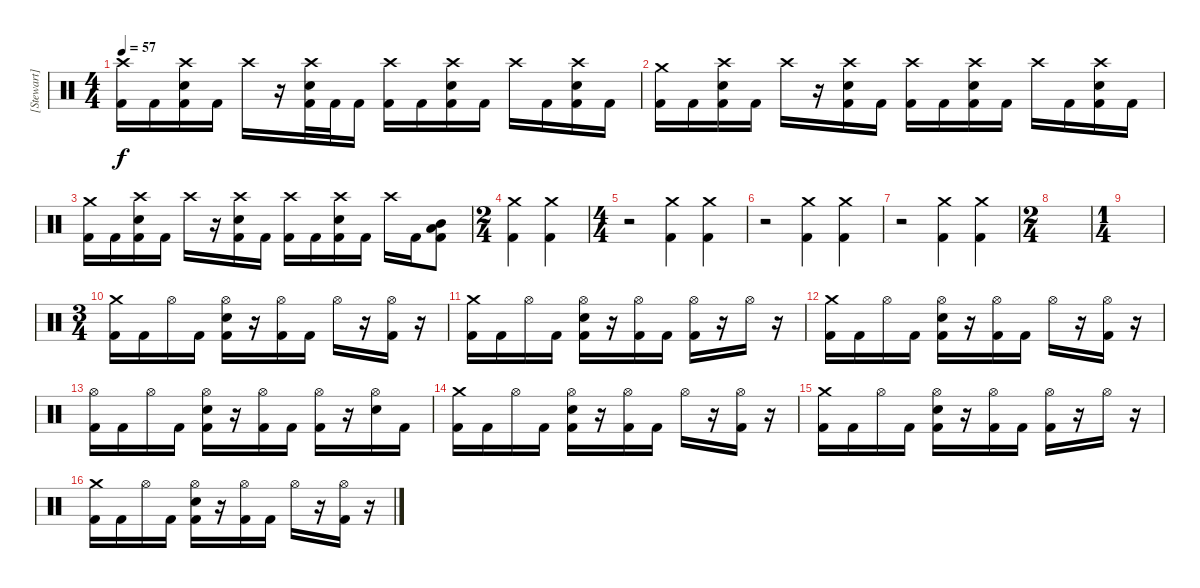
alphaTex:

\track ("[Stewart]" "[Stewart]") {instrument percussion}
\staff {score}
\articulation defaults
\ts (4 4)
\tempo 57
\clef neutral
\ks c
("Kick (hit) 2" "Crash high (hit)").16{dy f} "Kick (hit) 2".16 ("Kick (hit) 2" "Electric Snare (hit)" "Crash high (hit)").16 "Kick (hit) 2".16 "Crash high (hit)".16 r.16 ("Kick (hit) 2" "Electric Snare (hit)" "Crash high (hit)").32 "Kick (hit) 2".32 "Kick (hit) 2".16 ("Kick (hit) 2" "Crash high (hit)").16 "Kick (hit) 2".16 ("Kick (hit) 2" "Electric Snare (hit)" "Crash high (hit)").16 "Kick (hit) 2".16 "Crash high (hit)".16 "Kick (hit) 2".16 ("Kick (hit) 2" "Electric Snare (hit)" "Crash high (hit)").16 "Kick (hit) 2".16 |
("Kick (hit) 2" "Crash medium (hit)").16 "Kick (hit) 2".16 ("Kick (hit) 2" "Electric Snare (hit)" "Crash high (hit)").16 "Kick (hit) 2".16 "Crash high (hit)".16 r.16 ("Kick (hit) 2" "Electric Snare (hit)" "Crash high (hit)").16 "Kick (hit) 2".16 ("Kick (hit) 2" "Crash high (hit)").16 "Kick (hit) 2".16 ("Kick (hit) 2" "Electric Snare (hit)" "Crash high (hit)").16 "Kick (hit) 2".16 "Crash high (hit)".16 "Kick (hit) 2".16 ("Kick (hit) 2" "Electric Snare (hit)" "Crash high (hit)").16 "Kick (hit) 2".16 |
("Kick (hit) 2" "Crash medium (hit)").16 "Kick (hit) 2".16 ("Kick (hit) 2" "Electric Snare (hit)" "Crash high (hit)").16 "Kick (hit) 2".16 "Crash high (hit)".16 r.16 ("Kick (hit) 2" "Electric Snare (hit)" "Crash high (hit)").16 "Kick (hit) 2".16 ("Kick (hit) 2" "Crash high (hit)").16 "Kick (hit) 2".16 ("Kick (hit) 2" "Electric Snare (hit)" "Crash high (hit)").16 "Kick (hit) 2".16 "Crash high (hit)".16 "Kick (hit) 2".16 ("Kick (hit) 2" "Mid Tom (hit)" "Low Tom (hit)").8 |
\ts (2 4)
("Kick (hit) 2" "Crash medium (hit)").4 ("Kick (hit) 2" "Crash medium (hit)").4 |
\ts (4 4)
r.2 ("Crash medium (hit)" "Kick (hit) 2").4 ("Crash medium (hit)" "Kick (hit) 2").4 |
r.2 ("Crash medium (hit)" "Kick (hit) 2").4 ("Crash medium (hit)" "Kick (hit) 2").4 |
r.2 ("Crash medium (hit)" "Kick (hit) 2").4 ("Crash medium (hit)" "Kick (hit) 2").4 |
\ts (2 4)
|
\ts (1 4)
|
\ts (3 4)
("Kick (hit) 2" "Crash medium (hit)").16 "Kick (hit) 2".16 "Hi-Hat (open)".16 "Kick (hit) 2".16 ("Kick (hit) 2" "Electric Snare (hit)" "Hi-Hat (open)").16 r.16 ("Kick (hit) 2" "Hi-Hat (open)").16 "Kick (hit) 2".16 "Hi-Hat (open)".16 r.16 ("Kick (hit) 2" "Hi-Hat (open)").16 r.16 |
("Kick (hit) 2" "Crash medium (hit)").16 "Kick (hit) 2".16 "Hi-Hat (open)".16 "Kick (hit) 2".16 ("Kick (hit) 2" "Electric Snare (hit)" "Hi-Hat (open)").16 r.16 ("Kick (hit) 2" "Hi-Hat (open)").16 "Kick (hit) 2".16 ("Kick (hit) 2" "Hi-Hat (open)").16 r.16 "Hi-Hat (open)".16 r.16 |
("Kick (hit) 2" "Crash medium (hit)").16 "Kick (hit) 2".16 "Hi-Hat (open)".16 "Kick (hit) 2".16 ("Kick (hit) 2" "Electric Snare (hit)" "Hi-Hat (open)").16 r.16 ("Kick (hit) 2" "Hi-Hat (open)").16 "Kick (hit) 2".16 "Hi-Hat (open)".16 r.16 ("Kick (hit) 2" "Hi-Hat (open)").16 r.16 |
("Kick (hit) 2" "Hi-Hat (open)").16 "Kick (hit) 2".16 "Hi-Hat (open)".16 "Kick (hit) 2".16 ("Kick (hit) 2" "Electric Snare (hit)" "Hi-Hat (open)").16 r.16 ("Kick (hit) 2" "Hi-Hat (open)").16 "Kick (hit) 2".16 ("Kick (hit) 2" "Hi-Hat (open)").16 r.16 ("Electric Snare (hit)" "Hi-Hat (open)").16 "Kick (hit) 2".16 |
("Kick (hit) 2" "Crash medium (hit)").16 "Kick (hit) 2".16 "Hi-Hat (open)".16 "Kick (hit) 2".16 ("Kick (hit) 2" "Electric Snare (hit)" "Hi-Hat (open)").16 r.16 ("Kick (hit) 2" "Hi-Hat (open)").16 "Kick (hit) 2".16 "Hi-Hat (open)".16 r.16 ("Kick (hit) 2" "Hi-Hat (open)").16 r.16 |
("Kick (hit) 2" "Crash medium (hit)").16 "Kick (hit) 2".16 "Hi-Hat (open)".16 "Kick (hit) 2".16 ("Kick (hit) 2" "Electric Snare (hit)" "Hi-Hat (open)").16 r.16 ("Kick (hit) 2" "Hi-Hat (open)").16 "Kick (hit) 2".16 ("Kick (hit) 2" "Hi-Hat (open)").16 r.16 "Hi-Hat (open)".16 r.16 |
("Kick (hit) 2" "Crash medium (hit)").16 "Kick (hit) 2".16 "Hi-Hat (open)".16 "Kick (hit) 2".16 ("Kick (hit) 2" "Electric Snare (hit)" "Hi-Hat (open)").16 r.16 ("Kick (hit) 2" "Hi-Hat (open)").16 "Kick (hit) 2".16 "Hi-Hat (open)".16 r.16 ("Kick (hit) 2" "Hi-Hat (open)").16 r.16
